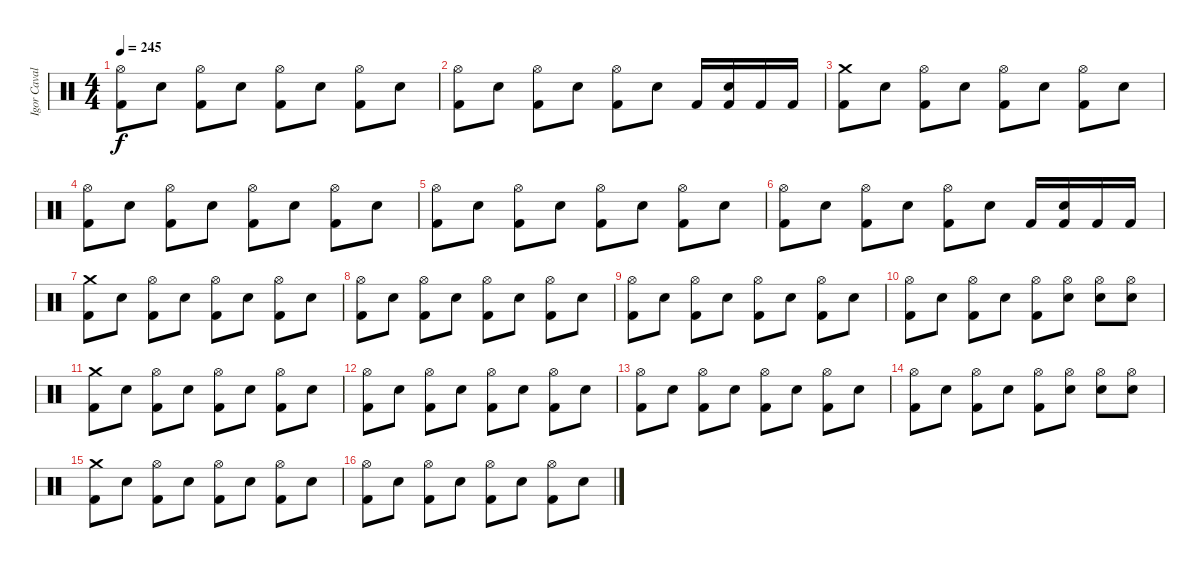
\track ("Igor Cavalera" "Igor Caval") {instrument percussion}
\staff {score}
\articulation defaults
\ts (4 4)
\tempo 245
\clef neutral
\ks c
("Hi-Hat (open)" "Kick (hit) 2").8{dy f} "Electric Snare (hit)".8 ("Hi-Hat (open)" "Kick (hit) 2").8 "Electric Snare (hit)".8 ("Hi-Hat (open)" "Kick (hit) 2").8 "Electric Snare (hit)".8 ("Hi-Hat (open)" "Kick (hit) 2").8 "Electric Snare (hit)".8 |
("Hi-Hat (open)" "Kick (hit) 2").8 "Electric Snare (hit)".8 ("Hi-Hat (open)" "Kick (hit) 2").8 "Electric Snare (hit)".8 ("Hi-Hat (open)" "Kick (hit) 2").8 "Electric Snare (hit)".8 "Kick (hit) 2".16 ("Kick (hit) 2" "Electric Snare (hit)").16 "Kick (hit) 2".16 "Kick (hit) 2".16 |
("Crash medium (hit)" "Kick (hit) 2").8 "Electric Snare (hit)".8 ("Hi-Hat (open)" "Kick (hit) 2").8 "Electric Snare (hit)".8 ("Hi-Hat (open)" "Kick (hit) 2").8 "Electric Snare (hit)".8 ("Hi-Hat (open)" "Kick (hit) 2").8 "Electric Snare (hit)".8 |
("Hi-Hat (open)" "Kick (hit) 2").8 "Electric Snare (hit)".8 ("Hi-Hat (open)" "Kick (hit) 2").8 "Electric Snare (hit)".8 ("Hi-Hat (open)" "Kick (hit) 2").8 "Electric Snare (hit)".8 ("Hi-Hat (open)" "Kick (hit) 2").8 "Electric Snare (hit)".8 |
("Hi-Hat (open)" "Kick (hit) 2").8 "Electric Snare (hit)".8 ("Hi-Hat (open)" "Kick (hit) 2").8 "Electric Snare (hit)".8 ("Hi-Hat (open)" "Kick (hit) 2").8 "Electric Snare (hit)".8 ("Hi-Hat (open)" "Kick (hit) 2").8 "Electric Snare (hit)".8 |
("Hi-Hat (open)" "Kick (hit) 2").8 "Electric Snare (hit)".8 ("Hi-Hat (open)" "Kick (hit) 2").8 "Electric Snare (hit)".8 ("Hi-Hat (open)" "Kick (hit) 2").8 "Electric Snare (hit)".8 "Kick (hit) 2".16 ("Kick (hit) 2" "Electric Snare (hit)").16 "Kick (hit) 2".16 "Kick (hit) 2".16 |
("Crash medium (hit)" "Kick (hit) 2").8 "Electric Snare (hit)".8 ("Hi-Hat (open)" "Kick (hit) 2").8 "Electric Snare (hit)".8 ("Hi-Hat (open)" "Kick (hit) 2").8 "Electric Snare (hit)".8 ("Hi-Hat (open)" "Kick (hit) 2").8 "Electric Snare (hit)".8 |
("Hi-Hat (open)" "Kick (hit) 2").8 "Electric Snare (hit)".8 ("Hi-Hat (open)" "Kick (hit) 2").8 "Electric Snare (hit)".8 ("Hi-Hat (open)" "Kick (hit) 2").8 "Electric Snare (hit)".8 ("Hi-Hat (open)" "Kick (hit) 2").8 "Electric Snare (hit)".8 |
("Hi-Hat (open)" "Kick (hit) 2").8 "Electric Snare (hit)".8 ("Hi-Hat (open)" "Kick (hit) 2").8 "Electric Snare (hit)".8 ("Hi-Hat (open)" "Kick (hit) 2").8 "Electric Snare (hit)".8 ("Hi-Hat (open)" "Kick (hit) 2").8 "Electric Snare (hit)".8 |
("Hi-Hat (open)" "Kick (hit) 2").8 "Electric Snare (hit)".8 ("Hi-Hat (open)" "Kick (hit) 2").8 "Electric Snare (hit)".8 ("Hi-Hat (open)" "Kick (hit) 2").8 ("Hi-Hat (open)" "Electric Snare (hit)").8 ("Hi-Hat (open)" "Electric Snare (hit)").8 ("Hi-Hat (open)" "Electric Snare (hit)").8 |
("Crash medium (hit)" "Kick (hit) 2").8 "Electric Snare (hit)".8 ("Hi-Hat (open)" "Kick (hit) 2").8 "Electric Snare (hit)".8 ("Hi-Hat (open)" "Kick (hit) 2").8 "Electric Snare (hit)".8 ("Hi-Hat (open)" "Kick (hit) 2").8 "Electric Snare (hit)".8 |
("Hi-Hat (open)" "Kick (hit) 2").8 "Electric Snare (hit)".8 ("Hi-Hat (open)" "Kick (hit) 2").8 "Electric Snare (hit)".8 ("Hi-Hat (open)" "Kick (hit) 2").8 "Electric Snare (hit)".8 ("Hi-Hat (open)" "Kick (hit) 2").8 "Electric Snare (hit)".8 |
("Hi-Hat (open)" "Kick (hit) 2").8 "Electric Snare (hit)".8 ("Hi-Hat (open)" "Kick (hit) 2").8 "Electric Snare (hit)".8 ("Hi-Hat (open)" "Kick (hit) 2").8 "Electric Snare (hit)".8 ("Hi-Hat (open)" "Kick (hit) 2").8 "Electric Snare (hit)".8 |
("Hi-Hat (open)" "Kick (hit) 2").8 "Electric Snare (hit)".8 ("Hi-Hat (open)" "Kick (hit) 2").8 "Electric Snare (hit)".8 ("Hi-Hat (open)" "Kick (hit) 2").8 ("Hi-Hat (open)" "Electric Snare (hit)").8 ("Hi-Hat (open)" "Electric Snare (hit)").8 ("Hi-Hat (open)" "Electric Snare (hit)").8 |
("Crash medium (hit)" "Kick (hit) 2").8 "Electric Snare (hit)".8 ("Hi-Hat (open)" "Kick (hit) 2").8 "Electric Snare (hit)".8 ("Hi-Hat (open)" "Kick (hit) 2").8 "Electric Snare (hit)".8 ("Hi-Hat (open)" "Kick (hit) 2").8 "Electric Snare (hit)".8 |
("Hi-Hat (open)" "Kick (hit) 2").8 "Electric Snare (hit)".8 ("Hi-Hat (open)" "Kick (hit) 2").8 "Electric Snare (hit)".8 ("Hi-Hat (open)" "Kick (hit) 2").8 "Electric Snare (hit)".8 ("Hi-Hat (open)" "Kick (hit) 2").8 "Electric Snare (hit)".8
